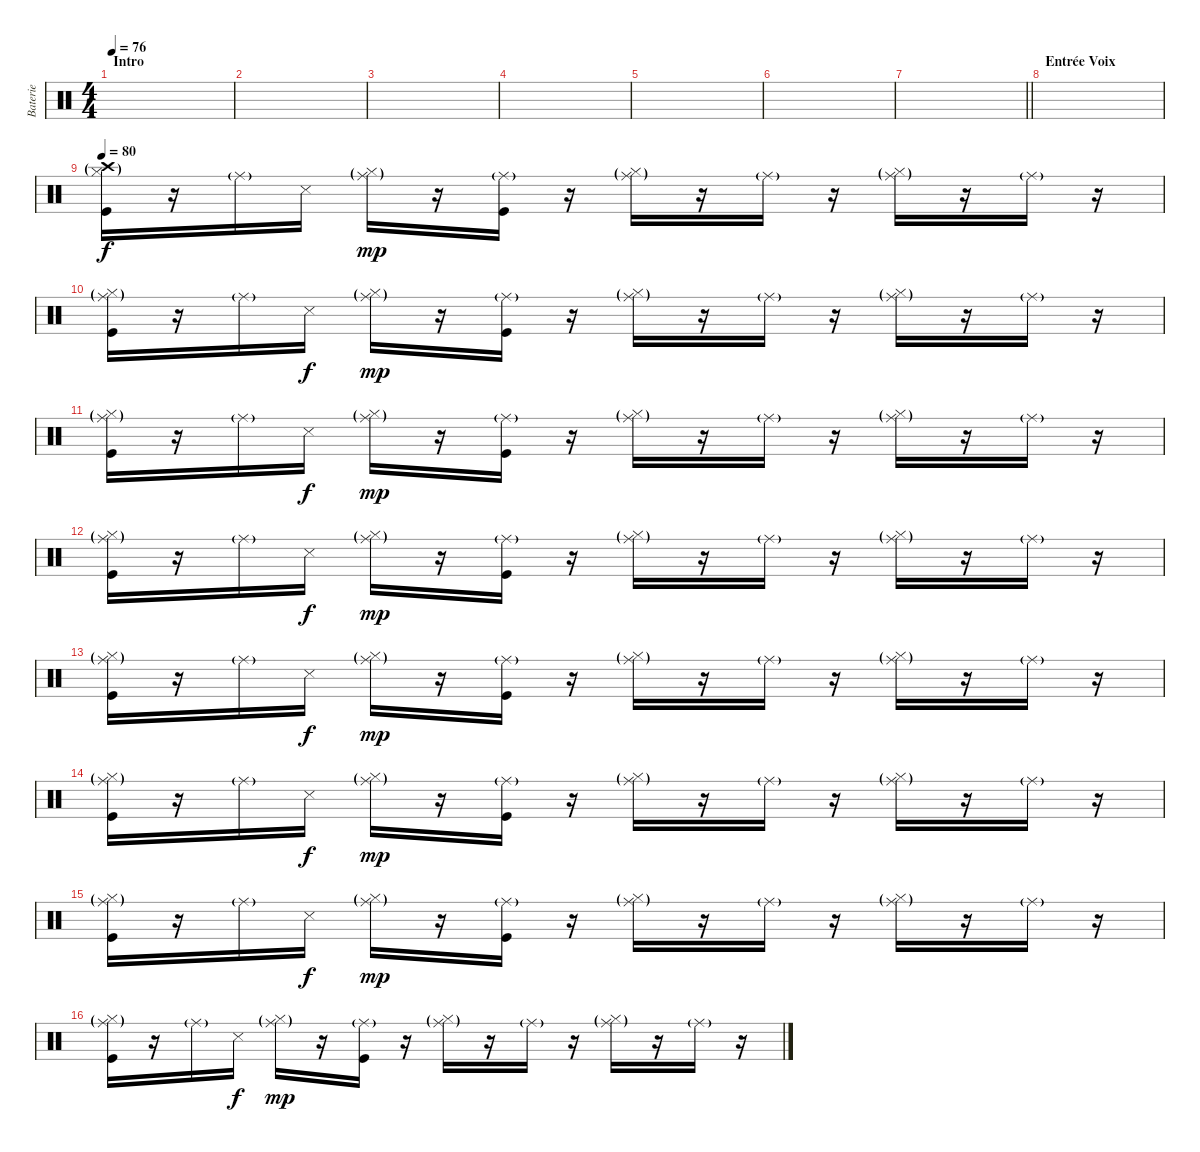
\track ("Baterie" "Baterie") {instrument percussion}
\staff {score}
\articulation defaults
\ts (4 4)
\section ("" "Intro")
\tempo 76
\clef neutral
\ks c
|
|
|
|
|
|
\barLineRight lightlight
|
\section ("" "Entrée Voix")
|
\tempo 80
("Crash high (hit)"{g} "Hi-Hat (closed)"{g} "Kick (hit)").16 r.16 "Ride (middle)"{g}.16 "Metronome (hit)".16{dy f} ("Ride (middle)"{g} "Hi-Hat (closed)"{g}).16{dy mp} r.16 ("Ride (middle)"{g} "Kick (hit)").16 r.16 ("Ride (middle)"{g} "Hi-Hat (closed)"{g}).16 r.16 "Ride (middle)"{g}.16 r.16 ("Ride (middle)"{g} "Hi-Hat (closed)"{g}).16 r.16 "Ride (middle)"{g}.16 r.16 |
("Ride (middle)"{g} "Hi-Hat (closed)"{g} "Kick (hit)").16 r.16 "Ride (middle)"{g}.16 "Metronome (hit)".16{dy f} ("Ride (middle)"{g} "Hi-Hat (closed)"{g}).16{dy mp} r.16 ("Ride (middle)"{g} "Kick (hit)").16 r.16 ("Ride (middle)"{g} "Hi-Hat (closed)"{g}).16 r.16 "Ride (middle)"{g}.16 r.16 ("Ride (middle)"{g} "Hi-Hat (closed)"{g}).16 r.16 "Ride (middle)"{g}.16 r.16 |
("Ride (middle)"{g} "Hi-Hat (closed)"{g} "Kick (hit)").16 r.16 "Ride (middle)"{g}.16 "Metronome (hit)".16{dy f} ("Ride (middle)"{g} "Hi-Hat (closed)"{g}).16{dy mp} r.16 ("Ride (middle)"{g} "Kick (hit)").16 r.16 ("Ride (middle)"{g} "Hi-Hat (closed)"{g}).16 r.16 "Ride (middle)"{g}.16 r.16 ("Ride (middle)"{g} "Hi-Hat (closed)"{g}).16 r.16 "Ride (middle)"{g}.16 r.16 |
("Ride (middle)"{g} "Hi-Hat (closed)"{g} "Kick (hit)").16 r.16 "Ride (middle)"{g}.16 "Metronome (hit)".16{dy f} ("Ride (middle)"{g} "Hi-Hat (closed)"{g}).16{dy mp} r.16 ("Ride (middle)"{g} "Kick (hit)").16 r.16 ("Ride (middle)"{g} "Hi-Hat (closed)"{g}).16 r.16 "Ride (middle)"{g}.16 r.16 ("Ride (middle)"{g} "Hi-Hat (closed)"{g}).16 r.16 "Ride (middle)"{g}.16 r.16 |
("Ride (middle)"{g} "Hi-Hat (closed)"{g} "Kick (hit)").16 r.16 "Ride (middle)"{g}.16 "Metronome (hit)".16{dy f} ("Ride (middle)"{g} "Hi-Hat (closed)"{g}).16{dy mp} r.16 ("Ride (middle)"{g} "Kick (hit)").16 r.16 ("Ride (middle)"{g} "Hi-Hat (closed)"{g}).16 r.16 "Ride (middle)"{g}.16 r.16 ("Ride (middle)"{g} "Hi-Hat (closed)"{g}).16 r.16 "Ride (middle)"{g}.16 r.16 |
("Ride (middle)"{g} "Hi-Hat (closed)"{g} "Kick (hit)").16 r.16 "Ride (middle)"{g}.16 "Metronome (hit)".16{dy f} ("Ride (middle)"{g} "Hi-Hat (closed)"{g}).16{dy mp} r.16 ("Ride (middle)"{g} "Kick (hit)").16 r.16 ("Ride (middle)"{g} "Hi-Hat (closed)"{g}).16 r.16 "Ride (middle)"{g}.16 r.16 ("Ride (middle)"{g} "Hi-Hat (closed)"{g}).16 r.16 "Ride (middle)"{g}.16 r.16 |
("Ride (middle)"{g} "Hi-Hat (closed)"{g} "Kick (hit)").16 r.16 "Ride (middle)"{g}.16 "Metronome (hit)".16{dy f} ("Ride (middle)"{g} "Hi-Hat (closed)"{g}).16{dy mp} r.16 ("Ride (middle)"{g} "Kick (hit)").16 r.16 ("Ride (middle)"{g} "Hi-Hat (closed)"{g}).16 r.16 "Ride (middle)"{g}.16 r.16 ("Ride (middle)"{g} "Hi-Hat (closed)"{g}).16 r.16 "Ride (middle)"{g}.16 r.16 |
("Ride (middle)"{g} "Hi-Hat (closed)"{g} "Kick (hit)").16 r.16 "Ride (middle)"{g}.16 "Metronome (hit)".16{dy f} ("Ride (middle)"{g} "Hi-Hat (closed)"{g}).16{dy mp} r.16 ("Ride (middle)"{g} "Kick (hit)").16 r.16 ("Ride (middle)"{g} "Hi-Hat (closed)"{g}).16 r.16 "Ride (middle)"{g}.16 r.16 ("Ride (middle)"{g} "Hi-Hat (closed)"{g}).16 r.16 "Ride (middle)"{g}.16 r.16
